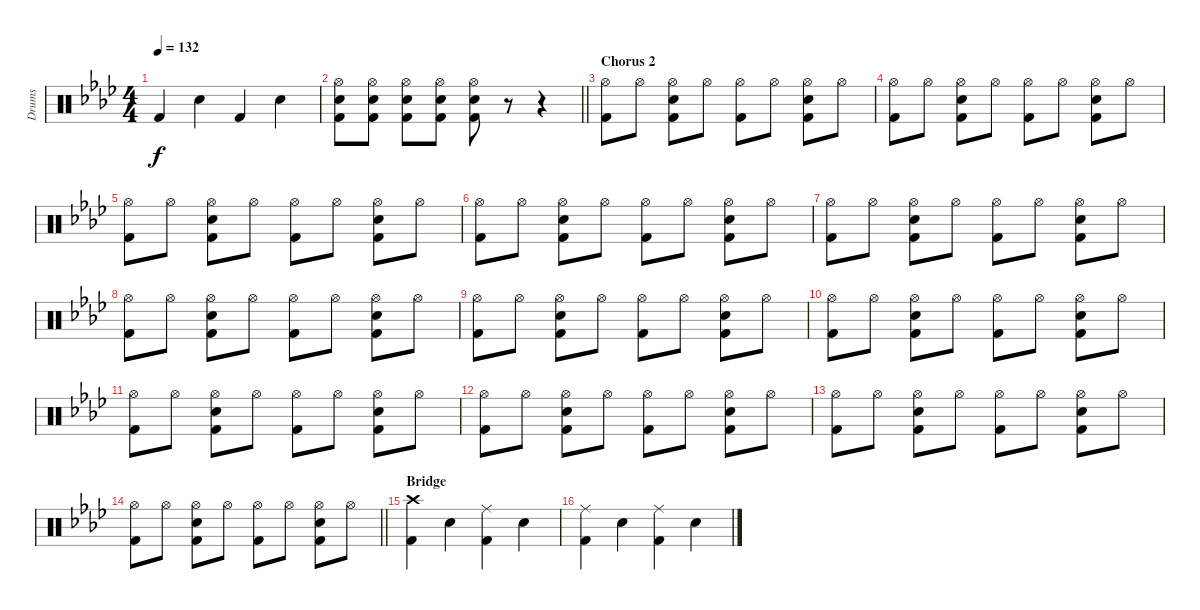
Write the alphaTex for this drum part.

\track ("Drums" "Drums") {instrument percussion}
\staff {score}
\articulation defaults
\ts (4 4)
\tempo 132
\clef neutral
\ks ab "Kick (hit) 2".4{dy f} "Electric Snare (hit)".4 "Kick (hit) 2".4 "Electric Snare (hit)".4
|
\barLineRight lightlight
("Hi-Hat (open)" "Electric Snare (hit)" "Kick (hit) 2").8 ("Hi-Hat (open)" "Electric Snare (hit)" "Kick (hit) 2").8 ("Hi-Hat (open)" "Electric Snare (hit)" "Kick (hit) 2").8 ("Hi-Hat (open)" "Electric Snare (hit)" "Kick (hit) 2").8 ("Hi-Hat (open)" "Electric Snare (hit)" "Kick (hit) 2").8 r.8 r.4 |
\section ("" "Chorus 2")
("Hi-Hat (open)" "Kick (hit) 2").8 "Hi-Hat (open)".8 ("Hi-Hat (open)" "Electric Snare (hit)" "Kick (hit) 2").8 "Hi-Hat (open)".8 ("Hi-Hat (open)" "Kick (hit) 2").8 "Hi-Hat (open)".8 ("Hi-Hat (open)" "Electric Snare (hit)" "Kick (hit) 2").8 "Hi-Hat (open)".8 |
("Hi-Hat (open)" "Kick (hit) 2").8 "Hi-Hat (open)".8 ("Hi-Hat (open)" "Electric Snare (hit)" "Kick (hit) 2").8 "Hi-Hat (open)".8 ("Hi-Hat (open)" "Kick (hit) 2").8 "Hi-Hat (open)".8 ("Hi-Hat (open)" "Electric Snare (hit)" "Kick (hit) 2").8 "Hi-Hat (open)".8 |
("Hi-Hat (open)" "Kick (hit) 2").8 "Hi-Hat (open)".8 ("Hi-Hat (open)" "Electric Snare (hit)" "Kick (hit) 2").8 "Hi-Hat (open)".8 ("Hi-Hat (open)" "Kick (hit) 2").8 "Hi-Hat (open)".8 ("Hi-Hat (open)" "Electric Snare (hit)" "Kick (hit) 2").8 "Hi-Hat (open)".8 |
("Hi-Hat (open)" "Kick (hit) 2").8 "Hi-Hat (open)".8 ("Hi-Hat (open)" "Electric Snare (hit)" "Kick (hit) 2").8 "Hi-Hat (open)".8 ("Hi-Hat (open)" "Kick (hit) 2").8 "Hi-Hat (open)".8 ("Hi-Hat (open)" "Electric Snare (hit)" "Kick (hit) 2").8 "Hi-Hat (open)".8 |
("Hi-Hat (open)" "Kick (hit) 2").8 "Hi-Hat (open)".8 ("Hi-Hat (open)" "Electric Snare (hit)" "Kick (hit) 2").8 "Hi-Hat (open)".8 ("Hi-Hat (open)" "Kick (hit) 2").8 "Hi-Hat (open)".8 ("Hi-Hat (open)" "Electric Snare (hit)" "Kick (hit) 2").8 "Hi-Hat (open)".8 |
("Hi-Hat (open)" "Kick (hit) 2").8 "Hi-Hat (open)".8 ("Hi-Hat (open)" "Electric Snare (hit)" "Kick (hit) 2").8 "Hi-Hat (open)".8 ("Hi-Hat (open)" "Kick (hit) 2").8 "Hi-Hat (open)".8 ("Hi-Hat (open)" "Electric Snare (hit)" "Kick (hit) 2").8 "Hi-Hat (open)".8 |
("Hi-Hat (open)" "Kick (hit) 2").8 "Hi-Hat (open)".8 ("Hi-Hat (open)" "Electric Snare (hit)" "Kick (hit) 2").8 "Hi-Hat (open)".8 ("Hi-Hat (open)" "Kick (hit) 2").8 "Hi-Hat (open)".8 ("Hi-Hat (open)" "Electric Snare (hit)" "Kick (hit) 2").8 "Hi-Hat (open)".8 |
("Hi-Hat (open)" "Kick (hit) 2").8 "Hi-Hat (open)".8 ("Hi-Hat (open)" "Electric Snare (hit)" "Kick (hit) 2").8 "Hi-Hat (open)".8 ("Hi-Hat (open)" "Kick (hit) 2").8 "Hi-Hat (open)".8 ("Hi-Hat (open)" "Electric Snare (hit)" "Kick (hit) 2").8 "Hi-Hat (open)".8 |
("Hi-Hat (open)" "Kick (hit) 2").8 "Hi-Hat (open)".8 ("Hi-Hat (open)" "Electric Snare (hit)" "Kick (hit) 2").8 "Hi-Hat (open)".8 ("Hi-Hat (open)" "Kick (hit) 2").8 "Hi-Hat (open)".8 ("Hi-Hat (open)" "Electric Snare (hit)" "Kick (hit) 2").8 "Hi-Hat (open)".8 |
("Hi-Hat (open)" "Kick (hit) 2").8 "Hi-Hat (open)".8 ("Hi-Hat (open)" "Electric Snare (hit)" "Kick (hit) 2").8 "Hi-Hat (open)".8 ("Hi-Hat (open)" "Kick (hit) 2").8 "Hi-Hat (open)".8 ("Hi-Hat (open)" "Electric Snare (hit)" "Kick (hit) 2").8 "Hi-Hat (open)".8 |
("Hi-Hat (open)" "Kick (hit) 2").8 "Hi-Hat (open)".8 ("Hi-Hat (open)" "Electric Snare (hit)" "Kick (hit) 2").8 "Hi-Hat (open)".8 ("Hi-Hat (open)" "Kick (hit) 2").8 "Hi-Hat (open)".8 ("Hi-Hat (open)" "Electric Snare (hit)" "Kick (hit) 2").8 "Hi-Hat (open)".8 |
\barLineRight lightlight
("Hi-Hat (open)" "Kick (hit) 2").8 "Hi-Hat (open)".8 ("Hi-Hat (open)" "Electric Snare (hit)" "Kick (hit) 2").8 "Hi-Hat (open)".8 ("Hi-Hat (open)" "Kick (hit) 2").8 "Hi-Hat (open)".8 ("Hi-Hat (open)" "Electric Snare (hit)" "Kick (hit) 2").8 "Hi-Hat (open)".8 |
\section ("" "Bridge")
("Crash high (hit)" "Kick (hit) 2").4 "Electric Snare (hit)".4 ("Ride (middle)" "Kick (hit) 2").4 "Electric Snare (hit)".4 |
("Ride (middle)" "Kick (hit) 2").4 "Electric Snare (hit)".4 ("Ride (middle)" "Kick (hit) 2").4 "Electric Snare (hit)".4
